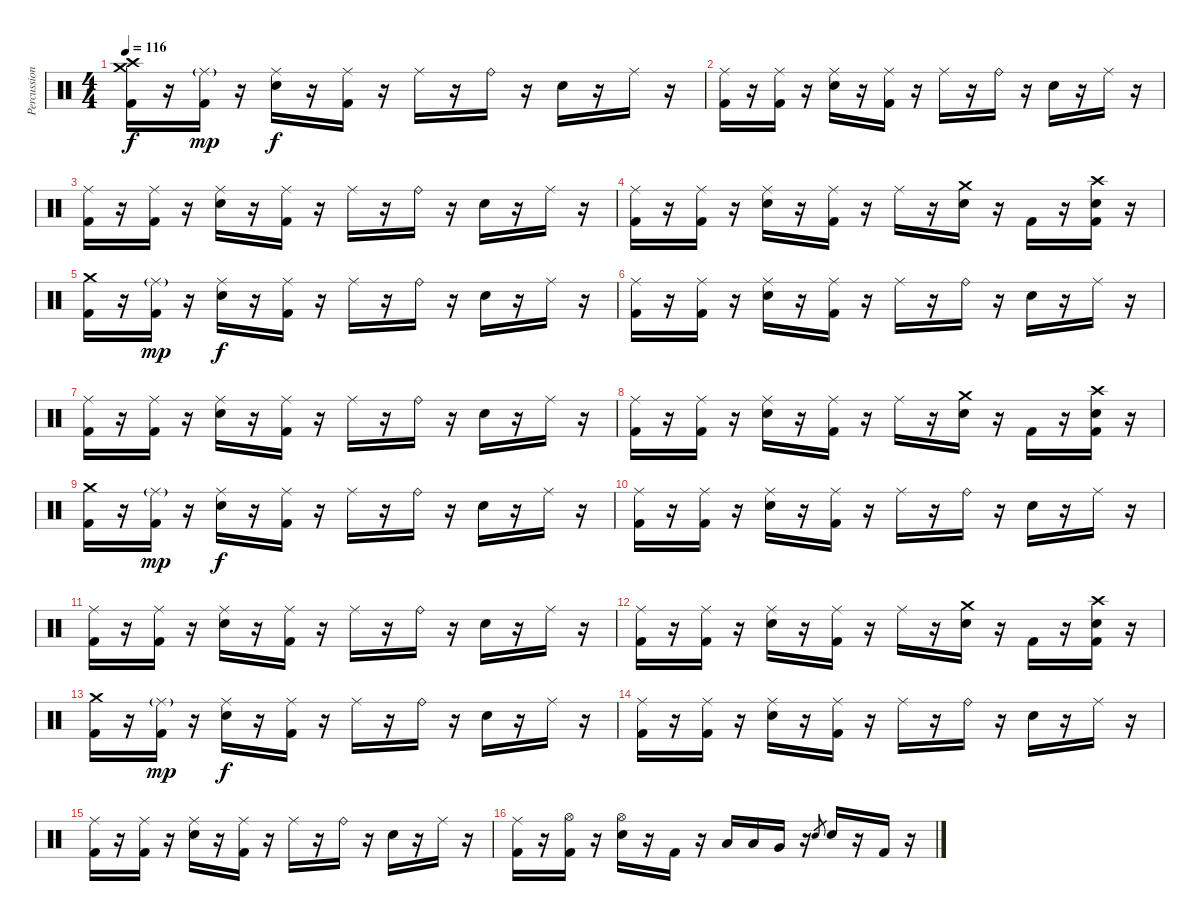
\track ("Percussion" "Percussion") {instrument percussion}
\staff {score}
\articulation defaults
\ts (4 4)
\tempo 116
\clef neutral
\ks c
("Crash medium (hit)" "Crash high (hit)" "Kick (hit) 2").16{dy f} r.16 ("Ride (middle)"{g} "Kick (hit) 2").16{dy mp} r.16 ("Ride (middle)" "Electric Snare (hit)").16{dy f} r.16 ("Ride (middle)" "Kick (hit) 2").16 r.16 "Ride (middle)".16 r.16 "Ride (bell)".16 r.16 "Electric Snare (hit)".16 r.16 "Ride (middle)".16 r.16 |
("Ride (middle)" "Kick (hit) 2").16 r.16 ("Ride (middle)" "Kick (hit) 2").16 r.16 ("Ride (middle)" "Electric Snare (hit)").16 r.16 ("Ride (middle)" "Kick (hit) 2").16 r.16 "Ride (middle)".16 r.16 "Ride (bell)".16 r.16 "Electric Snare (hit)".16 r.16 "Ride (middle)".16 r.16 |
("Ride (middle)" "Kick (hit) 2").16 r.16 ("Ride (middle)" "Kick (hit) 2").16 r.16 ("Ride (middle)" "Electric Snare (hit)").16 r.16 ("Ride (middle)" "Kick (hit) 2").16 r.16 "Ride (middle)".16 r.16 "Ride (bell)".16 r.16 "Electric Snare (hit)".16 r.16 "Ride (middle)".16 r.16 |
("Ride (middle)" "Kick (hit) 2").16 r.16 ("Ride (middle)" "Kick (hit) 2").16 r.16 ("Ride (middle)" "Electric Snare (hit)").16 r.16 ("Ride (middle)" "Kick (hit) 2").16 r.16 "Ride (middle)".16 r.16 ("Crash medium (hit)" "Electric Snare (hit)").16 r.16 "Kick (hit) 2".16 r.16 ("Crash high (hit)" "Electric Snare (hit)" "Kick (hit) 2").16 r.16 |
("Crash medium (hit)" "Kick (hit) 2").16 r.16 ("Ride (middle)"{g} "Kick (hit) 2").16{dy mp} r.16 ("Ride (middle)" "Electric Snare (hit)").16{dy f} r.16 ("Ride (middle)" "Kick (hit) 2").16 r.16 "Ride (middle)".16 r.16 "Ride (bell)".16 r.16 "Electric Snare (hit)".16 r.16 "Ride (middle)".16 r.16 |
("Ride (middle)" "Kick (hit) 2").16 r.16 ("Ride (middle)" "Kick (hit) 2").16 r.16 ("Ride (middle)" "Electric Snare (hit)").16 r.16 ("Ride (middle)" "Kick (hit) 2").16 r.16 "Ride (middle)".16 r.16 "Ride (bell)".16 r.16 "Electric Snare (hit)".16 r.16 "Ride (middle)".16 r.16 |
("Ride (middle)" "Kick (hit) 2").16 r.16 ("Ride (middle)" "Kick (hit) 2").16 r.16 ("Ride (middle)" "Electric Snare (hit)").16 r.16 ("Ride (middle)" "Kick (hit) 2").16 r.16 "Ride (middle)".16 r.16 "Ride (bell)".16 r.16 "Electric Snare (hit)".16 r.16 "Ride (middle)".16 r.16 |
("Ride (middle)" "Kick (hit) 2").16 r.16 ("Ride (middle)" "Kick (hit) 2").16 r.16 ("Ride (middle)" "Electric Snare (hit)").16 r.16 ("Ride (middle)" "Kick (hit) 2").16 r.16 "Ride (middle)".16 r.16 ("Crash medium (hit)" "Electric Snare (hit)").16 r.16 "Kick (hit) 2".16 r.16 ("Crash high (hit)" "Electric Snare (hit)" "Kick (hit) 2").16 r.16 |
("Crash medium (hit)" "Kick (hit) 2").16 r.16 ("Ride (middle)"{g} "Kick (hit) 2").16{dy mp} r.16 ("Ride (middle)" "Electric Snare (hit)").16{dy f} r.16 ("Ride (middle)" "Kick (hit) 2").16 r.16 "Ride (middle)".16 r.16 "Ride (bell)".16 r.16 "Electric Snare (hit)".16 r.16 "Ride (middle)".16 r.16 |
("Ride (middle)" "Kick (hit) 2").16 r.16 ("Ride (middle)" "Kick (hit) 2").16 r.16 ("Ride (middle)" "Electric Snare (hit)").16 r.16 ("Ride (middle)" "Kick (hit) 2").16 r.16 "Ride (middle)".16 r.16 "Ride (bell)".16 r.16 "Electric Snare (hit)".16 r.16 "Ride (middle)".16 r.16 |
("Ride (middle)" "Kick (hit) 2").16 r.16 ("Ride (middle)" "Kick (hit) 2").16 r.16 ("Ride (middle)" "Electric Snare (hit)").16 r.16 ("Ride (middle)" "Kick (hit) 2").16 r.16 "Ride (middle)".16 r.16 "Ride (bell)".16 r.16 "Electric Snare (hit)".16 r.16 "Ride (middle)".16 r.16 |
("Ride (middle)" "Kick (hit) 2").16 r.16 ("Ride (middle)" "Kick (hit) 2").16 r.16 ("Ride (middle)" "Electric Snare (hit)").16 r.16 ("Ride (middle)" "Kick (hit) 2").16 r.16 "Ride (middle)".16 r.16 ("Crash medium (hit)" "Electric Snare (hit)").16 r.16 "Kick (hit) 2".16 r.16 ("Crash high (hit)" "Electric Snare (hit)" "Kick (hit) 2").16 r.16 |
("Crash medium (hit)" "Kick (hit) 2").16 r.16 ("Ride (middle)"{g} "Kick (hit) 2").16{dy mp} r.16 ("Ride (middle)" "Electric Snare (hit)").16{dy f} r.16 ("Ride (middle)" "Kick (hit) 2").16 r.16 "Ride (middle)".16 r.16 "Ride (bell)".16 r.16 "Electric Snare (hit)".16 r.16 "Ride (middle)".16 r.16 |
("Ride (middle)" "Kick (hit) 2").16 r.16 ("Ride (middle)" "Kick (hit) 2").16 r.16 ("Ride (middle)" "Electric Snare (hit)").16 r.16 ("Ride (middle)" "Kick (hit) 2").16 r.16 "Ride (middle)".16 r.16 "Ride (bell)".16 r.16 "Electric Snare (hit)".16 r.16 "Ride (middle)".16 r.16 |
("Ride (middle)" "Kick (hit) 2").16 r.16 ("Ride (middle)" "Kick (hit) 2").16 r.16 ("Ride (middle)" "Electric Snare (hit)").16 r.16 ("Ride (middle)" "Kick (hit) 2").16 r.16 "Ride (middle)".16 r.16 "Ride (bell)".16 r.16 "Electric Snare (hit)".16 r.16 "Ride (middle)".16 r.16 |
("Ride (middle)" "Kick (hit) 2").16 r.16 ("Hi-Hat (open)" "Kick (hit) 2").16 r.16 ("Hi-Hat (open)" "Electric Snare (hit)").16 r.16 "Kick (hit) 2".16 r.16 "Low Tom (hit)".16 "Low Tom (hit)".16 "Very Low Tom (hit)".16 r.16 "Electric Snare (hit)".8{gr} "Electric Snare (hit)".16 r.16 "Kick (hit) 2".16 r.16
